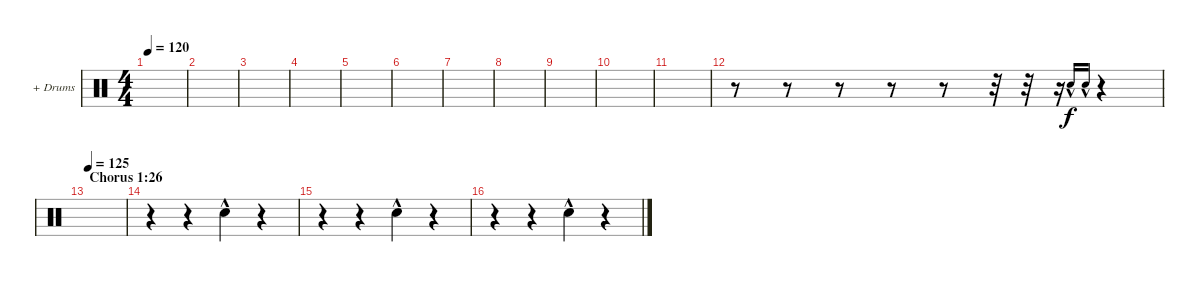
\defaultSystemsLayout 4
\bracketExtendMode groupsimilarinstruments
\firstSystemTrackNameOrientation horizontal
\otherSystemsTrackNameOrientation horizontal
\track ("+ Drums" "+ Drums") {instrument percussion}
\staff {score}
\articulation defaults
\ts (4 4)
\tempo 120
\clef neutral
\scale
0.333333
\ks c
|
\scale
0.333333 |
\scale
0.333333 |
\scale
0.333333 |
\scale
0.333333 |
\scale
0.333333 |
\scale
0.333333 |
\scale
0.333333 |
\scale
0.333333 |
\scale
0.333333 |
\scale
0.333333 |
\scale
0.333333 r.8 r.8 r.8 r.8 r.8 r.32 r.32 r.16 "Snare (hit) 2"{hac}.16{gr onbeat} "Snare (hit) 2"{hac}.16{gr onbeat} r.4 |
\section ("" "Chorus 1:26")
\tempo 125
\scale
0.333333 |
\scale
0.333333 r.4 r.4 "Snare (hit) 2"{hac}.4 r.4 |
\scale
0.333333 r.4 r.4 "Snare (hit) 2"{hac}.4 r.4 |
\scale
0.333333 r.4 r.4 "Snare (hit) 2"{hac}.4 r.4
